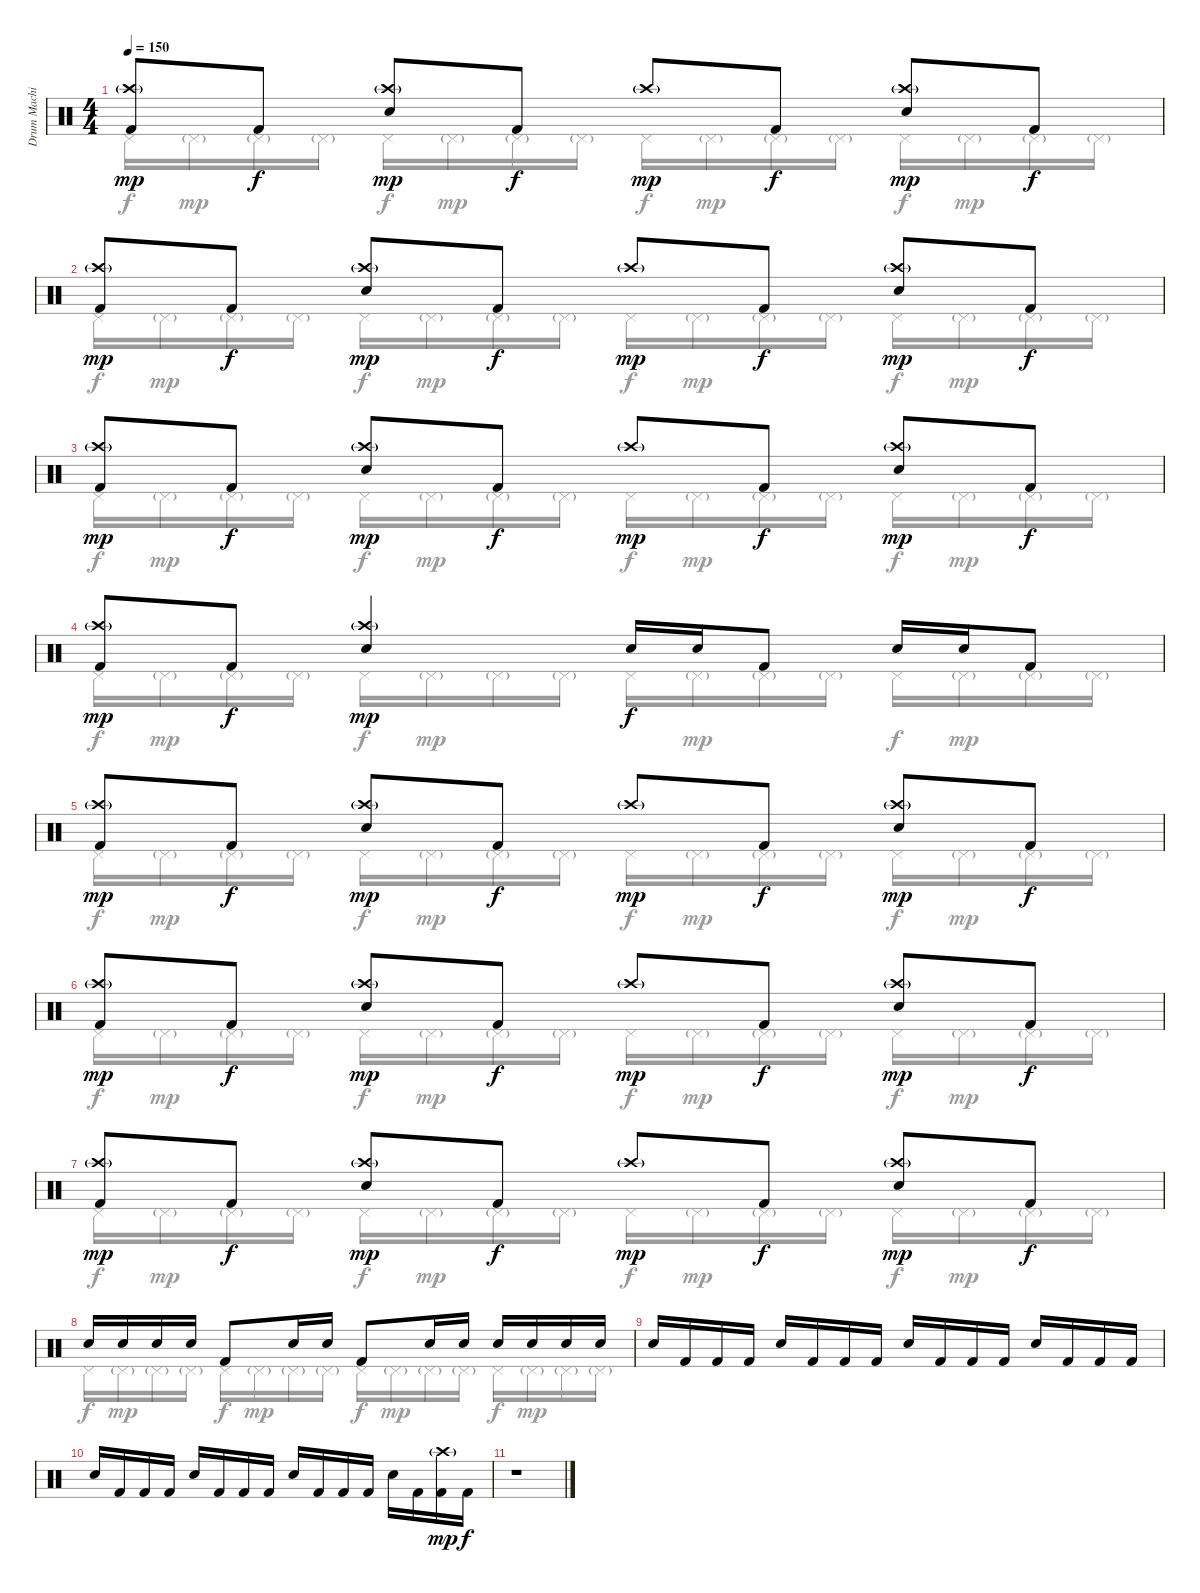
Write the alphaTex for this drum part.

\track ("Drum Machine" "Drum Machi") {instrument percussion}
\staff {score}
\articulation defaults
\voice
\ts (4 4)
\tempo 150
\clef neutral
\ks c
("Kick (hit) 2" "Crash high (hit)"{g}).8{dy mp} "Kick (hit) 2".8{dy f} ("Electric Snare (hit)" "Crash high (hit)"{g}).8{dy mp} "Kick (hit) 2".8{dy f} "Crash high (hit)"{g}.8{dy mp} "Kick (hit) 2".8{dy f} ("Electric Snare (hit)" "Crash high (hit)"{g}).8{dy mp} "Kick (hit) 2".8{dy f} |
("Kick (hit) 2" "Crash high (hit)"{g}).8{dy mp} "Kick (hit) 2".8{dy f} ("Electric Snare (hit)" "Crash high (hit)"{g}).8{dy mp} "Kick (hit) 2".8{dy f} "Crash high (hit)"{g}.8{dy mp} "Kick (hit) 2".8{dy f} ("Electric Snare (hit)" "Crash high (hit)"{g}).8{dy mp} "Kick (hit) 2".8{dy f} |
("Kick (hit) 2" "Crash high (hit)"{g}).8{dy mp} "Kick (hit) 2".8{dy f} ("Electric Snare (hit)" "Crash high (hit)"{g}).8{dy mp} "Kick (hit) 2".8{dy f} "Crash high (hit)"{g}.8{dy mp} "Kick (hit) 2".8{dy f} ("Electric Snare (hit)" "Crash high (hit)"{g}).8{dy mp} "Kick (hit) 2".8{dy f} |
("Kick (hit) 2" "Crash high (hit)"{g}).8{dy mp} "Kick (hit) 2".8{dy f} ("Electric Snare (hit)" "Crash high (hit)"{g}).4{dy mp} "Electric Snare (hit)".16{dy f} "Electric Snare (hit)".16 "Kick (hit) 2".8 "Electric Snare (hit)".16 "Electric Snare (hit)".16 "Kick (hit) 2".8 |
("Kick (hit) 2" "Crash high (hit)"{g}).8{dy mp} "Kick (hit) 2".8{dy f} ("Electric Snare (hit)" "Crash high (hit)"{g}).8{dy mp} "Kick (hit) 2".8{dy f} "Crash high (hit)"{g}.8{dy mp} "Kick (hit) 2".8{dy f} ("Electric Snare (hit)" "Crash high (hit)"{g}).8{dy mp} "Kick (hit) 2".8{dy f} |
("Kick (hit) 2" "Crash high (hit)"{g}).8{dy mp} "Kick (hit) 2".8{dy f} ("Electric Snare (hit)" "Crash high (hit)"{g}).8{dy mp} "Kick (hit) 2".8{dy f} "Crash high (hit)"{g}.8{dy mp} "Kick (hit) 2".8{dy f} ("Electric Snare (hit)" "Crash high (hit)"{g}).8{dy mp} "Kick (hit) 2".8{dy f} |
("Kick (hit) 2" "Crash high (hit)"{g}).8{dy mp} "Kick (hit) 2".8{dy f} ("Electric Snare (hit)" "Crash high (hit)"{g}).8{dy mp} "Kick (hit) 2".8{dy f} "Crash high (hit)"{g}.8{dy mp} "Kick (hit) 2".8{dy f} ("Electric Snare (hit)" "Crash high (hit)"{g}).8{dy mp} "Kick (hit) 2".8{dy f} |
"Electric Snare (hit)".16 "Electric Snare (hit)".16 "Electric Snare (hit)".16 "Electric Snare (hit)".16 "Kick (hit) 2".8 "Electric Snare (hit)".16 "Electric Snare (hit)".16 "Kick (hit) 2".8 "Electric Snare (hit)".16 "Electric Snare (hit)".16 "Electric Snare (hit)".16 "Electric Snare (hit)".16 "Electric Snare (hit)".16 "Electric Snare (hit)".16 |
"Electric Snare (hit)".16 "Kick (hit) 2".16 "Kick (hit) 2".16 "Kick (hit) 2".16 "Electric Snare (hit)".16 "Kick (hit) 2".16 "Kick (hit) 2".16 "Kick (hit) 2".16 "Electric Snare (hit)".16 "Kick (hit) 2".16 "Kick (hit) 2".16 "Kick (hit) 2".16 "Electric Snare (hit)".16 "Kick (hit) 2".16 "Kick (hit) 2".16 "Kick (hit) 2".16 |
"Electric Snare (hit)".16 "Kick (hit) 2".16 "Kick (hit) 2".16 "Kick (hit) 2".16 "Electric Snare (hit)".16 "Kick (hit) 2".16 "Kick (hit) 2".16 "Kick (hit) 2".16 "Electric Snare (hit)".16 "Kick (hit) 2".16 "Kick (hit) 2".16 "Kick (hit) 2".16 "Electric Snare (hit)".16 "Kick (hit) 2".16 ("Kick (hit) 2" "Crash high (hit)"{g}).16{dy mp} "Kick (hit) 2".16{dy f} |
r.1
\voice
\clef neutral
\ottava regular
\simile none
\ks c "Pedal Hi-Hat (hit)".16{dy f} "Pedal Hi-Hat (hit)"{g}.16{dy mp} "Pedal Hi-Hat (hit)"{g}.16 "Pedal Hi-Hat (hit)"{g}.16 "Pedal Hi-Hat (hit)".16{dy f} "Pedal Hi-Hat (hit)"{g}.16{dy mp} "Pedal Hi-Hat (hit)"{g}.16 "Pedal Hi-Hat (hit)"{g}.16 "Pedal Hi-Hat (hit)".16{dy f} "Pedal Hi-Hat (hit)"{g}.16{dy mp} "Pedal Hi-Hat (hit)"{g}.16 "Pedal Hi-Hat (hit)"{g}.16 "Pedal Hi-Hat (hit)".16{dy f} "Pedal Hi-Hat (hit)"{g}.16{dy mp} "Pedal Hi-Hat (hit)"{g}.16 "Pedal Hi-Hat (hit)"{g}.16
|
"Pedal Hi-Hat (hit)".16{dy f} "Pedal Hi-Hat (hit)"{g}.16{dy mp} "Pedal Hi-Hat (hit)"{g}.16 "Pedal Hi-Hat (hit)"{g}.16 "Pedal Hi-Hat (hit)".16{dy f} "Pedal Hi-Hat (hit)"{g}.16{dy mp} "Pedal Hi-Hat (hit)"{g}.16 "Pedal Hi-Hat (hit)"{g}.16 "Pedal Hi-Hat (hit)".16{dy f} "Pedal Hi-Hat (hit)"{g}.16{dy mp} "Pedal Hi-Hat (hit)"{g}.16 "Pedal Hi-Hat (hit)"{g}.16 "Pedal Hi-Hat (hit)".16{dy f} "Pedal Hi-Hat (hit)"{g}.16{dy mp} "Pedal Hi-Hat (hit)"{g}.16 "Pedal Hi-Hat (hit)"{g}.16 |
"Pedal Hi-Hat (hit)".16{dy f} "Pedal Hi-Hat (hit)"{g}.16{dy mp} "Pedal Hi-Hat (hit)"{g}.16 "Pedal Hi-Hat (hit)"{g}.16 "Pedal Hi-Hat (hit)".16{dy f} "Pedal Hi-Hat (hit)"{g}.16{dy mp} "Pedal Hi-Hat (hit)"{g}.16 "Pedal Hi-Hat (hit)"{g}.16 "Pedal Hi-Hat (hit)".16{dy f} "Pedal Hi-Hat (hit)"{g}.16{dy mp} "Pedal Hi-Hat (hit)"{g}.16 "Pedal Hi-Hat (hit)"{g}.16 "Pedal Hi-Hat (hit)".16{dy f} "Pedal Hi-Hat (hit)"{g}.16{dy mp} "Pedal Hi-Hat (hit)"{g}.16 "Pedal Hi-Hat (hit)"{g}.16 |
"Pedal Hi-Hat (hit)".16{dy f} "Pedal Hi-Hat (hit)"{g}.16{dy mp} "Pedal Hi-Hat (hit)"{g}.16 "Pedal Hi-Hat (hit)"{g}.16 "Pedal Hi-Hat (hit)".16{dy f} "Pedal Hi-Hat (hit)"{g}.16{dy mp} "Pedal Hi-Hat (hit)"{g}.16 "Pedal Hi-Hat (hit)"{g}.16 "Pedal Hi-Hat (hit)".16{dy f} "Pedal Hi-Hat (hit)"{g}.16{dy mp} "Pedal Hi-Hat (hit)"{g}.16 "Pedal Hi-Hat (hit)"{g}.16 "Pedal Hi-Hat (hit)".16{dy f} "Pedal Hi-Hat (hit)"{g}.16{dy mp} "Pedal Hi-Hat (hit)"{g}.16 "Pedal Hi-Hat (hit)"{g}.16 |
"Pedal Hi-Hat (hit)".16{dy f} "Pedal Hi-Hat (hit)"{g}.16{dy mp} "Pedal Hi-Hat (hit)"{g}.16 "Pedal Hi-Hat (hit)"{g}.16 "Pedal Hi-Hat (hit)".16{dy f} "Pedal Hi-Hat (hit)"{g}.16{dy mp} "Pedal Hi-Hat (hit)"{g}.16 "Pedal Hi-Hat (hit)"{g}.16 "Pedal Hi-Hat (hit)".16{dy f} "Pedal Hi-Hat (hit)"{g}.16{dy mp} "Pedal Hi-Hat (hit)"{g}.16 "Pedal Hi-Hat (hit)"{g}.16 "Pedal Hi-Hat (hit)".16{dy f} "Pedal Hi-Hat (hit)"{g}.16{dy mp} "Pedal Hi-Hat (hit)"{g}.16 "Pedal Hi-Hat (hit)"{g}.16 |
"Pedal Hi-Hat (hit)".16{dy f} "Pedal Hi-Hat (hit)"{g}.16{dy mp} "Pedal Hi-Hat (hit)"{g}.16 "Pedal Hi-Hat (hit)"{g}.16 "Pedal Hi-Hat (hit)".16{dy f} "Pedal Hi-Hat (hit)"{g}.16{dy mp} "Pedal Hi-Hat (hit)"{g}.16 "Pedal Hi-Hat (hit)"{g}.16 "Pedal Hi-Hat (hit)".16{dy f} "Pedal Hi-Hat (hit)"{g}.16{dy mp} "Pedal Hi-Hat (hit)"{g}.16 "Pedal Hi-Hat (hit)"{g}.16 "Pedal Hi-Hat (hit)".16{dy f} "Pedal Hi-Hat (hit)"{g}.16{dy mp} "Pedal Hi-Hat (hit)"{g}.16 "Pedal Hi-Hat (hit)"{g}.16 |
"Pedal Hi-Hat (hit)".16{dy f} "Pedal Hi-Hat (hit)"{g}.16{dy mp} "Pedal Hi-Hat (hit)"{g}.16 "Pedal Hi-Hat (hit)"{g}.16 "Pedal Hi-Hat (hit)".16{dy f} "Pedal Hi-Hat (hit)"{g}.16{dy mp} "Pedal Hi-Hat (hit)"{g}.16 "Pedal Hi-Hat (hit)"{g}.16 "Pedal Hi-Hat (hit)".16{dy f} "Pedal Hi-Hat (hit)"{g}.16{dy mp} "Pedal Hi-Hat (hit)"{g}.16 "Pedal Hi-Hat (hit)"{g}.16 "Pedal Hi-Hat (hit)".16{dy f} "Pedal Hi-Hat (hit)"{g}.16{dy mp} "Pedal Hi-Hat (hit)"{g}.16 "Pedal Hi-Hat (hit)"{g}.16 |
"Pedal Hi-Hat (hit)".16{dy f} "Pedal Hi-Hat (hit)"{g}.16{dy mp} "Pedal Hi-Hat (hit)"{g}.16 "Pedal Hi-Hat (hit)"{g}.16 "Pedal Hi-Hat (hit)".16{dy f} "Pedal Hi-Hat (hit)"{g}.16{dy mp} "Pedal Hi-Hat (hit)"{g}.16 "Pedal Hi-Hat (hit)"{g}.16 "Pedal Hi-Hat (hit)".16{dy f} "Pedal Hi-Hat (hit)"{g}.16{dy mp} "Pedal Hi-Hat (hit)"{g}.16 "Pedal Hi-Hat (hit)"{g}.16 "Pedal Hi-Hat (hit)".16{dy f} "Pedal Hi-Hat (hit)"{g}.16{dy mp} "Pedal Hi-Hat (hit)"{g}.16 "Pedal Hi-Hat (hit)"{g}.16 |
|
|
